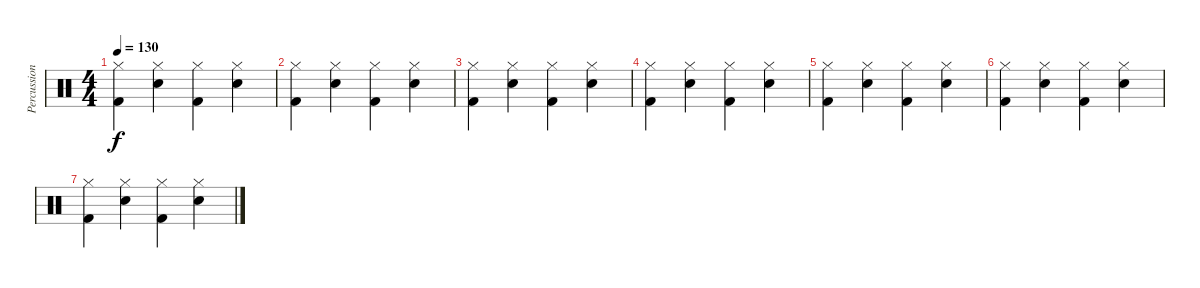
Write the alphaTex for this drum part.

\track ("Percussion" "Percussion") {instrument percussion bank 177}
\staff {score}
\articulation defaults
\ts (4 4)
\tempo 130
\clef neutral
\ks c
("Hi-Hat (closed)" "Kick (hit) 2").4{dy f} ("Hi-Hat (closed)" "Snare (hit) 2").4 ("Hi-Hat (closed)" "Kick (hit) 2").4 ("Hi-Hat (closed)" "Snare (hit) 2").4 |
("Hi-Hat (closed)" "Kick (hit) 2").4 ("Hi-Hat (closed)" "Snare (hit) 2").4 ("Hi-Hat (closed)" "Kick (hit) 2").4 ("Hi-Hat (closed)" "Snare (hit) 2").4 |
("Hi-Hat (closed)" "Kick (hit) 2").4 ("Hi-Hat (closed)" "Snare (hit) 2").4 ("Hi-Hat (closed)" "Kick (hit) 2").4 ("Hi-Hat (closed)" "Snare (hit) 2").4 |
("Hi-Hat (closed)" "Kick (hit) 2").4 ("Hi-Hat (closed)" "Snare (hit) 2").4 ("Hi-Hat (closed)" "Kick (hit) 2").4 ("Hi-Hat (closed)" "Snare (hit) 2").4 |
("Hi-Hat (closed)" "Kick (hit) 2").4 ("Hi-Hat (closed)" "Snare (hit) 2").4 ("Hi-Hat (closed)" "Kick (hit) 2").4 ("Hi-Hat (closed)" "Snare (hit) 2").4 |
("Hi-Hat (closed)" "Kick (hit) 2").4 ("Hi-Hat (closed)" "Snare (hit) 2").4 ("Hi-Hat (closed)" "Kick (hit) 2").4 ("Hi-Hat (closed)" "Snare (hit) 2").4 |
("Hi-Hat (closed)" "Kick (hit) 2").4 ("Hi-Hat (closed)" "Snare (hit) 2").4 ("Hi-Hat (closed)" "Kick (hit) 2").4 ("Hi-Hat (closed)" "Snare (hit) 2").4
